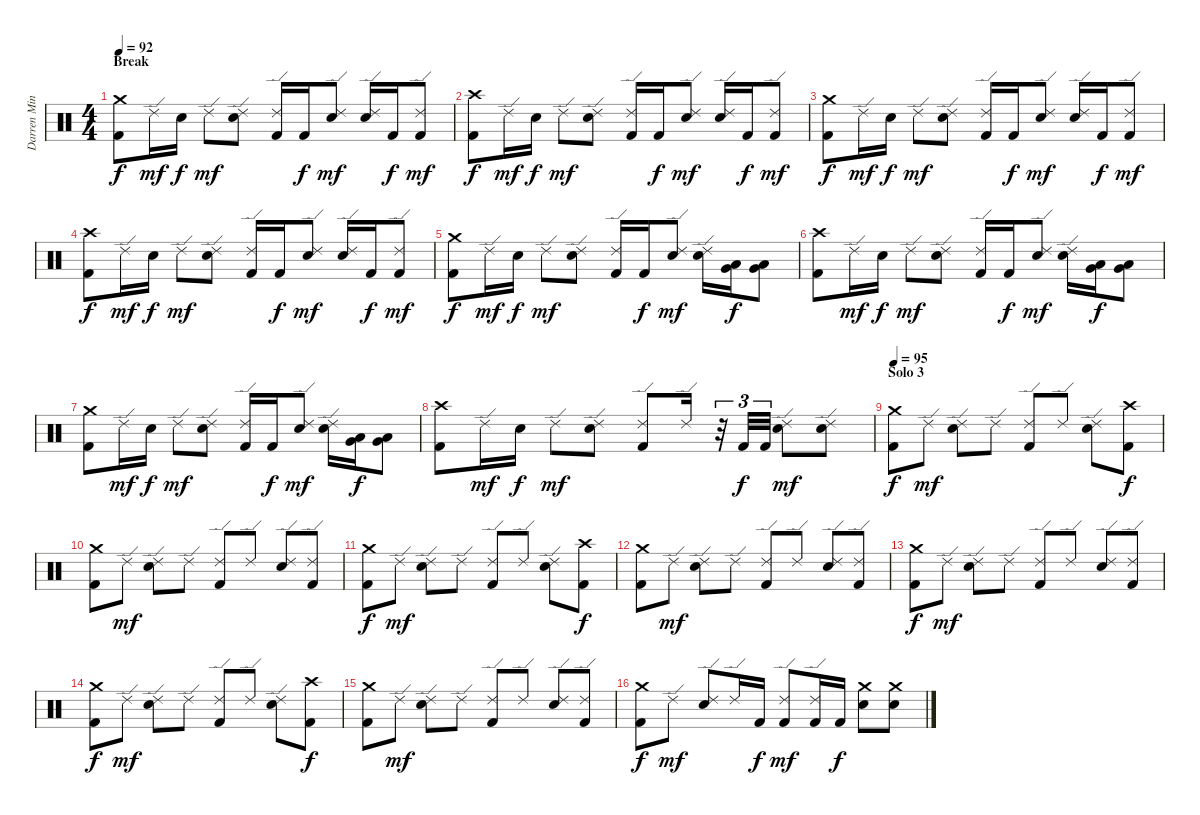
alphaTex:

\track ("Darren Minter" "Darren Min") {instrument percussion}
\staff {score}
\articulation defaults
\ts (4 4)
\section ("" "Break")
\tempo 92
\clef neutral
\ks c
("Kick (hit) 2" "Crash medium (hit)").8{dy f} "Ride (edge) 2".16{dy mf} "Snare (hit) 2".16{dy f} "Ride (edge) 2".8{dy mf} ("Ride (edge) 2" "Snare (hit) 2").8 ("Kick (hit) 2" "Ride (edge) 2").16 "Kick (hit) 2".16{dy f} ("Ride (edge) 2" "Snare (hit) 2").8{dy mf} ("Ride (edge) 2" "Snare (hit) 2").16 "Kick (hit) 2".16{dy f} ("Kick (hit) 2" "Ride (edge) 2").8{dy mf} |
("Kick (hit) 2" "Crash high (hit)").8{dy f} "Ride (edge) 2".16{dy mf} "Snare (hit) 2".16{dy f} "Ride (edge) 2".8{dy mf} ("Ride (edge) 2" "Snare (hit) 2").8 ("Kick (hit) 2" "Ride (edge) 2").16 "Kick (hit) 2".16{dy f} ("Ride (edge) 2" "Snare (hit) 2").8{dy mf} ("Ride (edge) 2" "Snare (hit) 2").16 "Kick (hit) 2".16{dy f} ("Kick (hit) 2" "Ride (edge) 2").8{dy mf} |
("Kick (hit) 2" "Crash medium (hit)").8{dy f} "Ride (edge) 2".16{dy mf} "Snare (hit) 2".16{dy f} "Ride (edge) 2".8{dy mf} ("Ride (edge) 2" "Snare (hit) 2").8 ("Kick (hit) 2" "Ride (edge) 2").16 "Kick (hit) 2".16{dy f} ("Ride (edge) 2" "Snare (hit) 2").8{dy mf} ("Ride (edge) 2" "Snare (hit) 2").16 "Kick (hit) 2".16{dy f} ("Kick (hit) 2" "Ride (edge) 2").8{dy mf} |
("Kick (hit) 2" "Crash high (hit)").8{dy f} "Ride (edge) 2".16{dy mf} "Snare (hit) 2".16{dy f} "Ride (edge) 2".8{dy mf} ("Ride (edge) 2" "Snare (hit) 2").8 ("Kick (hit) 2" "Ride (edge) 2").16 "Kick (hit) 2".16{dy f} ("Ride (edge) 2" "Snare (hit) 2").8{dy mf} ("Ride (edge) 2" "Snare (hit) 2").16 "Kick (hit) 2".16{dy f} ("Kick (hit) 2" "Ride (edge) 2").8{dy mf} |
("Kick (hit) 2" "Crash medium (hit)").8{dy f} "Ride (edge) 2".16{dy mf} "Snare (hit) 2".16{dy f} "Ride (edge) 2".8{dy mf} ("Ride (edge) 2" "Snare (hit) 2").8 ("Kick (hit) 2" "Ride (edge) 2").16 "Kick (hit) 2".16{dy f} ("Ride (edge) 2" "Snare (hit) 2").8{dy mf} ("Ride (edge) 2" "Snare (hit) 2").16 ("Low Tom (hit)" "Very Low Tom (hit)").16{dy f} ("Low Tom (hit)" "Very Low Tom (hit)").8 |
("Kick (hit) 2" "Crash high (hit)").8 "Ride (edge) 2".16{dy mf} "Snare (hit) 2".16{dy f} "Ride (edge) 2".8{dy mf} ("Ride (edge) 2" "Snare (hit) 2").8 ("Kick (hit) 2" "Ride (edge) 2").16 "Kick (hit) 2".16{dy f} ("Ride (edge) 2" "Snare (hit) 2").8{dy mf} ("Ride (edge) 2" "Snare (hit) 2").16 ("Low Tom (hit)" "Very Low Tom (hit)").16{dy f} ("Low Tom (hit)" "Very Low Tom (hit)").8 |
("Kick (hit) 2" "Crash medium (hit)").8 "Ride (edge) 2".16{dy mf} "Snare (hit) 2".16{dy f} "Ride (edge) 2".8{dy mf} ("Ride (edge) 2" "Snare (hit) 2").8 ("Kick (hit) 2" "Ride (edge) 2").16 "Kick (hit) 2".16{dy f} ("Ride (edge) 2" "Snare (hit) 2").8{dy mf} ("Ride (edge) 2" "Snare (hit) 2").16 ("Low Tom (hit)" "Very Low Tom (hit)").16{dy f} ("Low Tom (hit)" "Very Low Tom (hit)").8 |
("Kick (hit) 2" "Crash high (hit)").8 "Ride (edge) 2".16{dy mf} "Snare (hit) 2".16{dy f} "Ride (edge) 2".8{dy mf} ("Ride (edge) 2" "Snare (hit) 2").8 ("Kick (hit) 2" "Ride (edge) 2").8 "Ride (edge) 2".16 r.32{tu (3 2)} "Kick (hit) 2".32{tu (3 2) dy f} "Kick (hit) 2".32{tu (3 2)} ("Ride (edge) 2" "Snare (hit) 2").8{dy mf} ("Ride (edge) 2" "Snare (hit) 2").8 |
\section ("" "Solo 3")
\tempo 95
("Kick (hit) 2" "Crash medium (hit)").8{dy f} "Ride (edge) 2".8{dy mf} ("Ride (edge) 2" "Snare (hit) 2").8 "Ride (edge) 2".8 ("Kick (hit) 2" "Ride (edge) 2").8 "Ride (edge) 2".8 ("Ride (edge) 2" "Snare (hit) 2").8 ("Kick (hit) 2" "Crash high (hit)").8{dy f} |
("Kick (hit) 2" "Crash medium (hit)").8 "Ride (edge) 2".8{dy mf} ("Ride (edge) 2" "Snare (hit) 2").8 "Ride (edge) 2".8 ("Kick (hit) 2" "Ride (edge) 2").8 "Ride (edge) 2".8 ("Ride (edge) 2" "Snare (hit) 2").8 ("Kick (hit) 2" "Ride (edge) 2").8 |
("Kick (hit) 2" "Crash medium (hit)").8{dy f} "Ride (edge) 2".8{dy mf} ("Ride (edge) 2" "Snare (hit) 2").8 "Ride (edge) 2".8 ("Kick (hit) 2" "Ride (edge) 2").8 "Ride (edge) 2".8 ("Ride (edge) 2" "Snare (hit) 2").8 ("Kick (hit) 2" "Crash high (hit)").8{dy f} |
("Kick (hit) 2" "Crash medium (hit)").8 "Ride (edge) 2".8{dy mf} ("Ride (edge) 2" "Snare (hit) 2").8 "Ride (edge) 2".8 ("Kick (hit) 2" "Ride (edge) 2").8 "Ride (edge) 2".8 ("Ride (edge) 2" "Snare (hit) 2").8 ("Kick (hit) 2" "Ride (edge) 2").8 |
("Kick (hit) 2" "Crash medium (hit)").8{dy f} "Ride (edge) 2".8{dy mf} ("Ride (edge) 2" "Snare (hit) 2").8 "Ride (edge) 2".8 ("Kick (hit) 2" "Ride (edge) 2").8 "Ride (edge) 2".8 ("Ride (edge) 2" "Snare (hit) 2").8 ("Kick (hit) 2" "Ride (edge) 2").8 |
("Kick (hit) 2" "Crash medium (hit)").8{dy f} "Ride (edge) 2".8{dy mf} ("Ride (edge) 2" "Snare (hit) 2").8 "Ride (edge) 2".8 ("Kick (hit) 2" "Ride (edge) 2").8 "Ride (edge) 2".8 ("Ride (edge) 2" "Snare (hit) 2").8 ("Kick (hit) 2" "Crash high (hit)").8{dy f} |
("Kick (hit) 2" "Crash medium (hit)").8 "Ride (edge) 2".8{dy mf} ("Ride (edge) 2" "Snare (hit) 2").8 "Ride (edge) 2".8 ("Kick (hit) 2" "Ride (edge) 2").8 "Ride (edge) 2".8 ("Ride (edge) 2" "Snare (hit) 2").8 ("Kick (hit) 2" "Ride (edge) 2").8 |
("Kick (hit) 2" "Crash medium (hit)").8{dy f} "Ride (edge) 2".8{dy mf} ("Ride (edge) 2" "Snare (hit) 2").8 "Ride (edge) 2".16 "Kick (hit) 2".16{dy f} ("Kick (hit) 2" "Ride (edge) 2").8{dy mf} ("Kick (hit) 2" "Ride (edge) 2").16 "Kick (hit) 2".16{dy f} ("Crash medium (hit)" "Snare (hit) 2").8 ("Crash medium (hit)" "Snare (hit) 2").8
